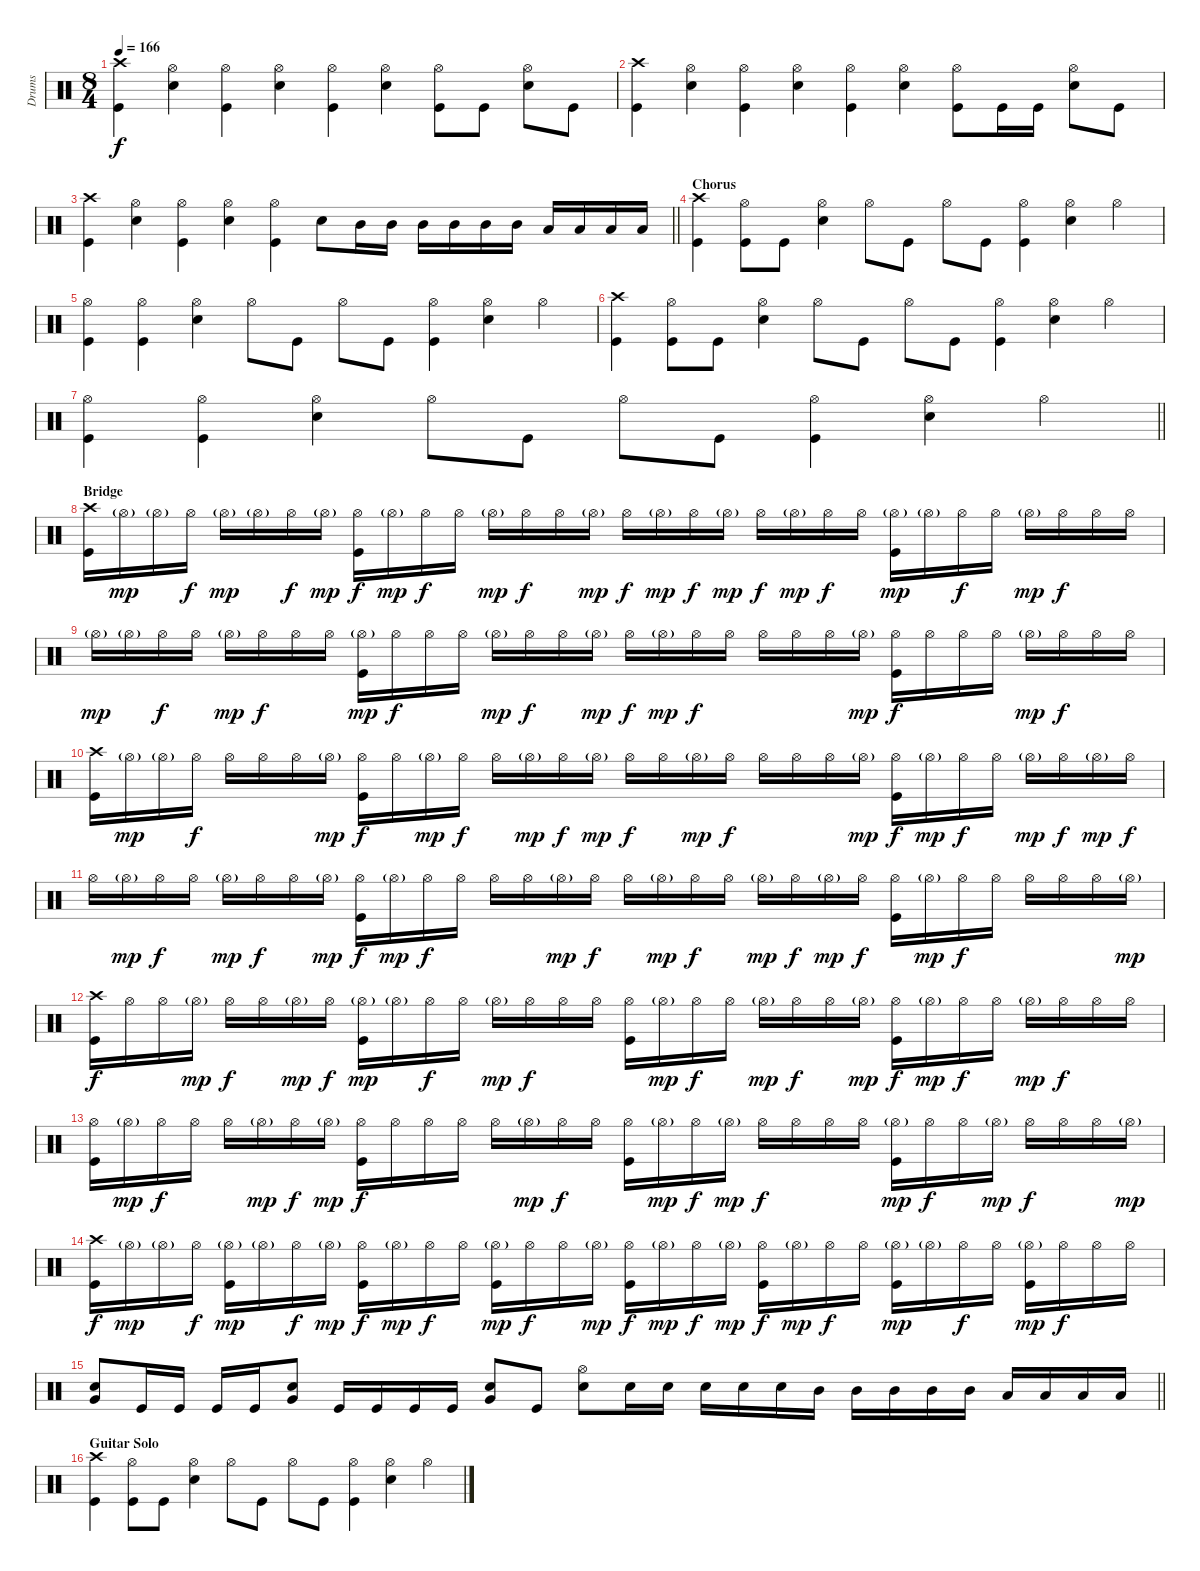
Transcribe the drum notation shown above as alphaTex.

\track ("Drums" "Drums") {instrument percussion}
\staff {score}
\articulation defaults
\ts (8 4)
\tempo 166
\clef neutral
\ks c
("Crash high (hit)" "Kick (hit)").4{dy f} ("Hi-Hat (open)" "Snare (hit) 2").4 ("Hi-Hat (open)" "Kick (hit)").4 ("Hi-Hat (open)" "Snare (hit) 2").4 ("Hi-Hat (open)" "Kick (hit)").4 ("Hi-Hat (open)" "Snare (hit) 2").4 ("Hi-Hat (open)" "Kick (hit)").8 "Kick (hit)".8 ("Hi-Hat (open)" "Snare (hit) 2").8 "Kick (hit)".8 |
("Crash high (hit)" "Kick (hit)").4 ("Hi-Hat (open)" "Snare (hit) 2").4 ("Hi-Hat (open)" "Kick (hit)").4 ("Hi-Hat (open)" "Snare (hit) 2").4 ("Hi-Hat (open)" "Kick (hit)").4 ("Hi-Hat (open)" "Snare (hit) 2").4 ("Hi-Hat (open)" "Kick (hit)").8 "Kick (hit)".16 "Kick (hit)".16 ("Hi-Hat (open)" "Snare (hit) 2").8 "Kick (hit)".8 |
\barLineRight lightlight
("Crash high (hit)" "Kick (hit)").4 ("Hi-Hat (open)" "Snare (hit) 2").4 ("Hi-Hat (open)" "Kick (hit)").4 ("Hi-Hat (open)" "Snare (hit) 2").4 ("Hi-Hat (open)" "Kick (hit)").4 "Snare (hit) 2".8 "Mid Tom (hit)".16 "Mid Tom (hit)".16 "Mid Tom (hit)".16 "Mid Tom (hit)".16 "Mid Tom (hit)".16 "Mid Tom (hit)".16 "Low Tom (hit)".16 "Low Tom (hit)".16 "Low Tom (hit)".16 "Low Tom (hit)".16 |
\section ("" "Chorus")
("Crash high (hit)" "Kick (hit)").4 ("Hi-Hat (open)" "Kick (hit)").8 "Kick (hit)".8 ("Hi-Hat (open)" "Snare (hit) 2").4 "Hi-Hat (open)".8 "Kick (hit)".8 "Hi-Hat (open)".8 "Kick (hit)".8 ("Hi-Hat (open)" "Kick (hit)").4 ("Hi-Hat (open)" "Snare (hit) 2").4 "Hi-Hat (open)".4 |
("Hi-Hat (open)" "Kick (hit)").4 ("Hi-Hat (open)" "Kick (hit)").4 ("Hi-Hat (open)" "Snare (hit) 2").4 "Hi-Hat (open)".8 "Kick (hit)".8 "Hi-Hat (open)".8 "Kick (hit)".8 ("Hi-Hat (open)" "Kick (hit)").4 ("Hi-Hat (open)" "Snare (hit) 2").4 "Hi-Hat (open)".4 |
("Crash high (hit)" "Kick (hit)").4 ("Hi-Hat (open)" "Kick (hit)").8 "Kick (hit)".8 ("Hi-Hat (open)" "Snare (hit) 2").4 "Hi-Hat (open)".8 "Kick (hit)".8 "Hi-Hat (open)".8 "Kick (hit)".8 ("Hi-Hat (open)" "Kick (hit)").4 ("Hi-Hat (open)" "Snare (hit) 2").4 "Hi-Hat (open)".4 |
\barLineRight lightlight
("Hi-Hat (open)" "Kick (hit)").4 ("Hi-Hat (open)" "Kick (hit)").4 ("Hi-Hat (open)" "Snare (hit) 2").4 "Hi-Hat (open)".8 "Kick (hit)".8 "Hi-Hat (open)".8 "Kick (hit)".8 ("Hi-Hat (open)" "Kick (hit)").4 ("Hi-Hat (open)" "Snare (hit) 2").4 "Hi-Hat (open)".4 |
\section ("" "Bridge")
("Crash high (hit)" "Kick (hit)").16 "Hi-Hat (open)"{g}.16{dy mp} "Hi-Hat (open)"{g}.16 "Hi-Hat (open)".16{dy f} "Hi-Hat (open)"{g}.16{dy mp} "Hi-Hat (open)"{g}.16 "Hi-Hat (open)".16{dy f} "Hi-Hat (open)"{g}.16{dy mp} ("Hi-Hat (open)" "Kick (hit)").16{dy f} "Hi-Hat (open)"{g}.16{dy mp} "Hi-Hat (open)".16{dy f} "Hi-Hat (open)".16 "Hi-Hat (open)"{g}.16{dy mp} "Hi-Hat (open)".16{dy f} "Hi-Hat (open)".16 "Hi-Hat (open)"{g}.16{dy mp} "Hi-Hat (open)".16{dy f} "Hi-Hat (open)"{g}.16{dy mp} "Hi-Hat (open)".16{dy f} "Hi-Hat (open)"{g}.16{dy mp} "Hi-Hat (open)".16{dy f} "Hi-Hat (open)"{g}.16{dy mp} "Hi-Hat (open)".16{dy f} "Hi-Hat (open)".16 ("Hi-Hat (open)"{g} "Kick (hit)").16{dy mp} "Hi-Hat (open)"{g}.16 "Hi-Hat (open)".16{dy f} "Hi-Hat (open)".16 "Hi-Hat (open)"{g}.16{dy mp} "Hi-Hat (open)".16{dy f} "Hi-Hat (open)".16 "Hi-Hat (open)".16 |
"Hi-Hat (open)"{g}.16{dy mp} "Hi-Hat (open)"{g}.16 "Hi-Hat (open)".16{dy f} "Hi-Hat (open)".16 "Hi-Hat (open)"{g}.16{dy mp} "Hi-Hat (open)".16{dy f} "Hi-Hat (open)".16 "Hi-Hat (open)".16 ("Hi-Hat (open)"{g} "Kick (hit)").16{dy mp} "Hi-Hat (open)".16{dy f} "Hi-Hat (open)".16 "Hi-Hat (open)".16 "Hi-Hat (open)"{g}.16{dy mp} "Hi-Hat (open)".16{dy f} "Hi-Hat (open)".16 "Hi-Hat (open)"{g}.16{dy mp} "Hi-Hat (open)".16{dy f} "Hi-Hat (open)"{g}.16{dy mp} "Hi-Hat (open)".16{dy f} "Hi-Hat (open)".16 "Hi-Hat (open)".16 "Hi-Hat (open)".16 "Hi-Hat (open)".16 "Hi-Hat (open)"{g}.16{dy mp} ("Hi-Hat (open)" "Kick (hit)").16{dy f} "Hi-Hat (open)".16 "Hi-Hat (open)".16 "Hi-Hat (open)".16 "Hi-Hat (open)"{g}.16{dy mp} "Hi-Hat (open)".16{dy f} "Hi-Hat (open)".16 "Hi-Hat (open)".16 |
("Crash high (hit)" "Kick (hit)").16 "Hi-Hat (open)"{g}.16{dy mp} "Hi-Hat (open)"{g}.16 "Hi-Hat (open)".16{dy f} "Hi-Hat (open)".16 "Hi-Hat (open)".16 "Hi-Hat (open)".16 "Hi-Hat (open)"{g}.16{dy mp} ("Hi-Hat (open)" "Kick (hit)").16{dy f} "Hi-Hat (open)".16 "Hi-Hat (open)"{g}.16{dy mp} "Hi-Hat (open)".16{dy f} "Hi-Hat (open)".16 "Hi-Hat (open)"{g}.16{dy mp} "Hi-Hat (open)".16{dy f} "Hi-Hat (open)"{g}.16{dy mp} "Hi-Hat (open)".16{dy f} "Hi-Hat (open)".16 "Hi-Hat (open)"{g}.16{dy mp} "Hi-Hat (open)".16{dy f} "Hi-Hat (open)".16 "Hi-Hat (open)".16 "Hi-Hat (open)".16 "Hi-Hat (open)"{g}.16{dy mp} ("Hi-Hat (open)" "Kick (hit)").16{dy f} "Hi-Hat (open)"{g}.16{dy mp} "Hi-Hat (open)".16{dy f} "Hi-Hat (open)".16 "Hi-Hat (open)"{g}.16{dy mp} "Hi-Hat (open)".16{dy f} "Hi-Hat (open)"{g}.16{dy mp} "Hi-Hat (open)".16{dy f} |
"Hi-Hat (open)".16 "Hi-Hat (open)"{g}.16{dy mp} "Hi-Hat (open)".16{dy f} "Hi-Hat (open)".16 "Hi-Hat (open)"{g}.16{dy mp} "Hi-Hat (open)".16{dy f} "Hi-Hat (open)".16 "Hi-Hat (open)"{g}.16{dy mp} ("Hi-Hat (open)" "Kick (hit)").16{dy f} "Hi-Hat (open)"{g}.16{dy mp} "Hi-Hat (open)".16{dy f} "Hi-Hat (open)".16 "Hi-Hat (open)".16 "Hi-Hat (open)".16 "Hi-Hat (open)"{g}.16{dy mp} "Hi-Hat (open)".16{dy f} "Hi-Hat (open)".16 "Hi-Hat (open)"{g}.16{dy mp} "Hi-Hat (open)".16{dy f} "Hi-Hat (open)".16 "Hi-Hat (open)"{g}.16{dy mp} "Hi-Hat (open)".16{dy f} "Hi-Hat (open)"{g}.16{dy mp} "Hi-Hat (open)".16{dy f} ("Hi-Hat (open)" "Kick (hit)").16 "Hi-Hat (open)"{g}.16{dy mp} "Hi-Hat (open)".16{dy f} "Hi-Hat (open)".16 "Hi-Hat (open)".16 "Hi-Hat (open)".16 "Hi-Hat (open)".16 "Hi-Hat (open)"{g}.16{dy mp} |
("Crash high (hit)" "Kick (hit)").16{dy f} "Hi-Hat (open)".16 "Hi-Hat (open)".16 "Hi-Hat (open)"{g}.16{dy mp} "Hi-Hat (open)".16{dy f} "Hi-Hat (open)".16 "Hi-Hat (open)"{g}.16{dy mp} "Hi-Hat (open)".16{dy f} ("Hi-Hat (open)"{g} "Kick (hit)").16{dy mp} "Hi-Hat (open)"{g}.16 "Hi-Hat (open)".16{dy f} "Hi-Hat (open)".16 "Hi-Hat (open)"{g}.16{dy mp} "Hi-Hat (open)".16{dy f} "Hi-Hat (open)".16 "Hi-Hat (open)".16 ("Hi-Hat (open)" "Kick (hit)").16 "Hi-Hat (open)"{g}.16{dy mp} "Hi-Hat (open)".16{dy f} "Hi-Hat (open)".16 "Hi-Hat (open)"{g}.16{dy mp} "Hi-Hat (open)".16{dy f} "Hi-Hat (open)".16 "Hi-Hat (open)"{g}.16{dy mp} ("Hi-Hat (open)" "Kick (hit)").16{dy f} "Hi-Hat (open)"{g}.16{dy mp} "Hi-Hat (open)".16{dy f} "Hi-Hat (open)".16 "Hi-Hat (open)"{g}.16{dy mp} "Hi-Hat (open)".16{dy f} "Hi-Hat (open)".16 "Hi-Hat (open)".16 |
("Hi-Hat (open)" "Kick (hit)").16 "Hi-Hat (open)"{g}.16{dy mp} "Hi-Hat (open)".16{dy f} "Hi-Hat (open)".16 "Hi-Hat (open)".16 "Hi-Hat (open)"{g}.16{dy mp} "Hi-Hat (open)".16{dy f} "Hi-Hat (open)"{g}.16{dy mp} ("Hi-Hat (open)" "Kick (hit)").16{dy f} "Hi-Hat (open)".16 "Hi-Hat (open)".16 "Hi-Hat (open)".16 "Hi-Hat (open)".16 "Hi-Hat (open)"{g}.16{dy mp} "Hi-Hat (open)".16{dy f} "Hi-Hat (open)".16 ("Hi-Hat (open)" "Kick (hit)").16 "Hi-Hat (open)"{g}.16{dy mp} "Hi-Hat (open)".16{dy f} "Hi-Hat (open)"{g}.16{dy mp} "Hi-Hat (open)".16{dy f} "Hi-Hat (open)".16 "Hi-Hat (open)".16 "Hi-Hat (open)".16 ("Hi-Hat (open)"{g} "Kick (hit)").16{dy mp} "Hi-Hat (open)".16{dy f} "Hi-Hat (open)".16 "Hi-Hat (open)"{g}.16{dy mp} "Hi-Hat (open)".16{dy f} "Hi-Hat (open)".16 "Hi-Hat (open)".16 "Hi-Hat (open)"{g}.16{dy mp} |
("Crash high (hit)" "Kick (hit)").16{dy f} "Hi-Hat (open)"{g}.16{dy mp} "Hi-Hat (open)"{g}.16 "Hi-Hat (open)".16{dy f} ("Hi-Hat (open)"{g} "Kick (hit)").16{dy mp} "Hi-Hat (open)"{g}.16 "Hi-Hat (open)".16{dy f} "Hi-Hat (open)"{g}.16{dy mp} ("Hi-Hat (open)" "Kick (hit)").16{dy f} "Hi-Hat (open)"{g}.16{dy mp} "Hi-Hat (open)".16{dy f} "Hi-Hat (open)".16 ("Hi-Hat (open)"{g} "Kick (hit)").16{dy mp} "Hi-Hat (open)".16{dy f} "Hi-Hat (open)".16 "Hi-Hat (open)"{g}.16{dy mp} ("Hi-Hat (open)" "Kick (hit)").16{dy f} "Hi-Hat (open)"{g}.16{dy mp} "Hi-Hat (open)".16{dy f} "Hi-Hat (open)"{g}.16{dy mp} ("Hi-Hat (open)" "Kick (hit)").16{dy f} "Hi-Hat (open)"{g}.16{dy mp} "Hi-Hat (open)".16{dy f} "Hi-Hat (open)".16 ("Hi-Hat (open)"{g} "Kick (hit)").16{dy mp} "Hi-Hat (open)"{g}.16 "Hi-Hat (open)".16{dy f} "Hi-Hat (open)".16 ("Hi-Hat (open)"{g} "Kick (hit)").16{dy mp} "Hi-Hat (open)".16{dy f} "Hi-Hat (open)".16 "Hi-Hat (open)".16 |
\barLineRight lightlight
("Very Low Tom (hit)" "Snare (hit) 2").8 "Kick (hit)".16 "Kick (hit)".16 "Kick (hit)".16 "Kick (hit)".16 ("Very Low Tom (hit)" "Snare (hit) 2").8 "Kick (hit)".16 "Kick (hit)".16 "Kick (hit)".16 "Kick (hit)".16 ("Very Low Tom (hit)" "Snare (hit) 2").8 "Kick (hit)".8 ("Hi-Hat (open)" "Snare (hit) 2").8 "Snare (hit) 2".16 "Snare (hit) 2".16 "Snare (hit) 2".16 "Snare (hit) 2".16 "Snare (hit) 2".16 "Mid Tom (hit)".16 "Mid Tom (hit)".16 "Mid Tom (hit)".16 "Mid Tom (hit)".16 "Mid Tom (hit)".16 "Low Tom (hit)".16 "Low Tom (hit)".16 "Low Tom (hit)".16 "Low Tom (hit)".16 |
\section ("" "Guitar Solo")
("Crash high (hit)" "Kick (hit)").4 ("Hi-Hat (open)" "Kick (hit)").8 "Kick (hit)".8 ("Hi-Hat (open)" "Snare (hit) 2").4 "Hi-Hat (open)".8 "Kick (hit)".8 "Hi-Hat (open)".8 "Kick (hit)".8 ("Hi-Hat (open)" "Kick (hit)").4 ("Hi-Hat (open)" "Snare (hit) 2").4 "Hi-Hat (open)".4
